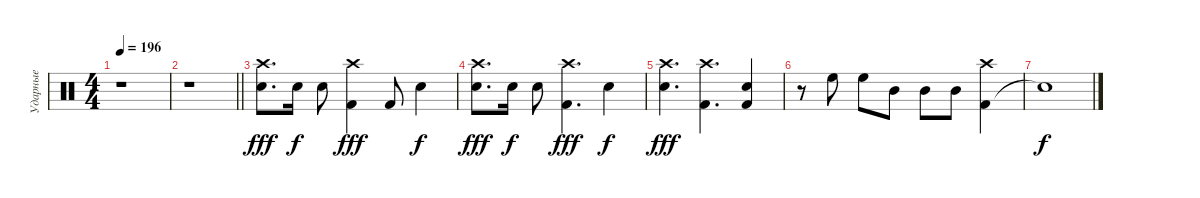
\track ("Ударные" "Ударные") {instrument percussion}
\staff {score}
\articulation defaults
\ts (4 4)
\tempo 196
\clef neutral
\ks c
r.1{dy f} |
\barLineRight lightlight
r.1 |
("Snare (hit) 2" "Crash high (hit)").8{d dy fff} "Snare (hit) 2".16{dy f} "Snare (hit) 2".8 ("Kick (hit) 2" "Crash high (hit)").4{dy fff} "Kick (hit) 2".8 "Snare (hit) 2".4{dy f} |
("Snare (hit) 2" "Crash high (hit)").8{d dy fff} "Snare (hit) 2".16{dy f} "Snare (hit) 2".8 ("Kick (hit) 2" "Crash high (hit)").4{d dy fff} "Snare (hit) 2".4{dy f} |
("Snare (hit) 2" "Crash high (hit)").4{d dy fff} ("Kick (hit) 2" "Crash high (hit)").4{d} ("Kick (hit) 2" "Snare (hit) 2").4 |
r.8 "High Floor Tom (hit)".8 "High Floor Tom (hit)".8 "Mid Tom (hit)".8 "Mid Tom (hit)".8 "Mid Tom (hit)".8 ("Kick (hit) 2" "Crash high (hit)").4 |
"Snare (hit)"{t}.1{dy f}
